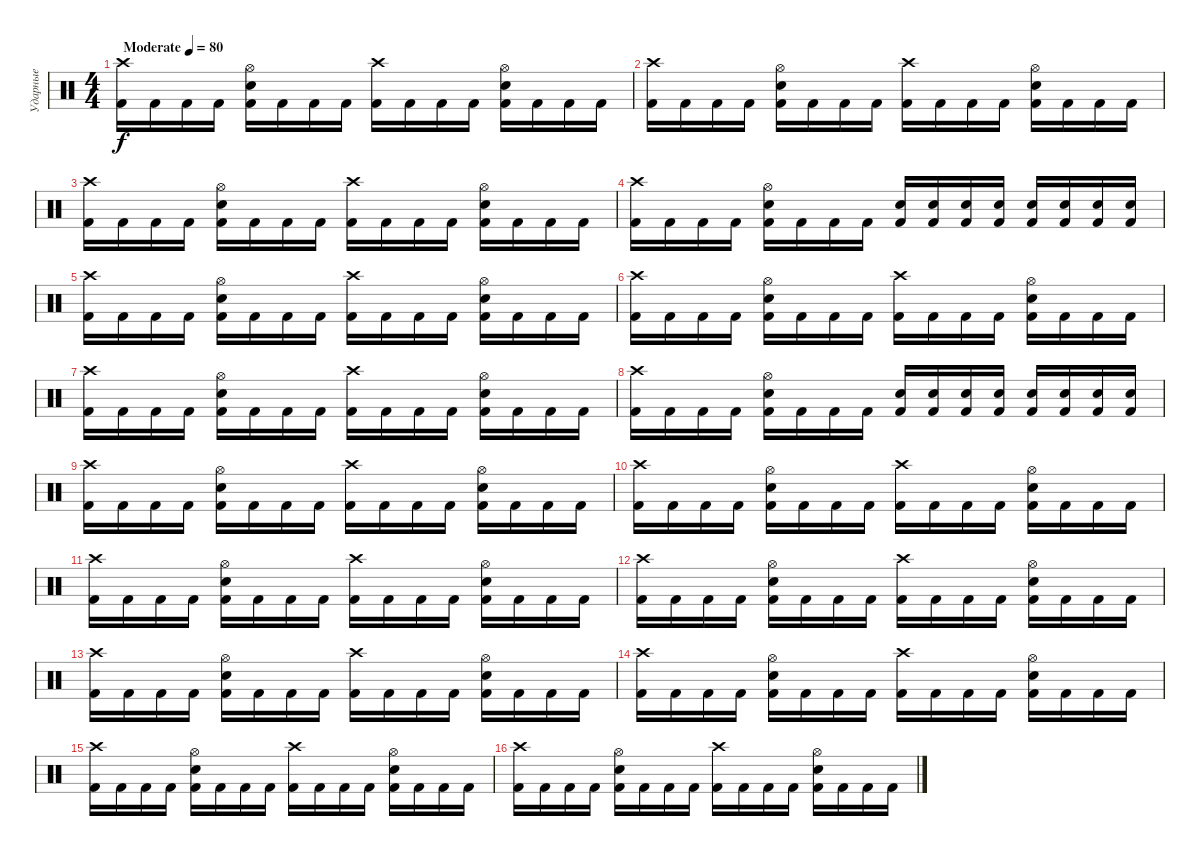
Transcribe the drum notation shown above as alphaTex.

\track ("Ударные" "Ударные") {instrument percussion}
\staff {score}
\articulation defaults
\ts (4 4)
\tempo (80 "Moderate")
\clef neutral
\ks c
("Crash high (hit)" "Kick (hit) 2").16{dy f} "Kick (hit) 2".16 "Kick (hit) 2".16 "Kick (hit) 2".16 ("Snare (hit) 2" "Hi-Hat (open)" "Kick (hit) 2").16 "Kick (hit) 2".16 "Kick (hit) 2".16 "Kick (hit) 2".16 ("Crash high (hit)" "Kick (hit) 2").16 "Kick (hit) 2".16 "Kick (hit) 2".16 "Kick (hit) 2".16 ("Snare (hit) 2" "Hi-Hat (open)" "Kick (hit) 2").16 "Kick (hit) 2".16 "Kick (hit) 2".16 "Kick (hit) 2".16 |
("Crash high (hit)" "Kick (hit) 2").16 "Kick (hit) 2".16 "Kick (hit) 2".16 "Kick (hit) 2".16 ("Snare (hit) 2" "Hi-Hat (open)" "Kick (hit) 2").16 "Kick (hit) 2".16 "Kick (hit) 2".16 "Kick (hit) 2".16 ("Crash high (hit)" "Kick (hit) 2").16 "Kick (hit) 2".16 "Kick (hit) 2".16 "Kick (hit) 2".16 ("Snare (hit) 2" "Hi-Hat (open)" "Kick (hit) 2").16 "Kick (hit) 2".16 "Kick (hit) 2".16 "Kick (hit) 2".16 |
("Crash high (hit)" "Kick (hit) 2").16 "Kick (hit) 2".16 "Kick (hit) 2".16 "Kick (hit) 2".16 ("Snare (hit) 2" "Hi-Hat (open)" "Kick (hit) 2").16 "Kick (hit) 2".16 "Kick (hit) 2".16 "Kick (hit) 2".16 ("Crash high (hit)" "Kick (hit) 2").16 "Kick (hit) 2".16 "Kick (hit) 2".16 "Kick (hit) 2".16 ("Snare (hit) 2" "Hi-Hat (open)" "Kick (hit) 2").16 "Kick (hit) 2".16 "Kick (hit) 2".16 "Kick (hit) 2".16 |
("Crash high (hit)" "Kick (hit) 2").16 "Kick (hit) 2".16 "Kick (hit) 2".16 "Kick (hit) 2".16 ("Snare (hit) 2" "Hi-Hat (open)" "Kick (hit) 2").16 "Kick (hit) 2".16 "Kick (hit) 2".16 "Kick (hit) 2".16 ("Snare (hit) 2" "Kick (hit) 2").16 ("Snare (hit) 2" "Kick (hit) 2").16 ("Snare (hit) 2" "Kick (hit) 2").16 ("Snare (hit) 2" "Kick (hit) 2").16 ("Snare (hit) 2" "Kick (hit) 2").16 ("Snare (hit) 2" "Kick (hit) 2").16 ("Snare (hit) 2" "Kick (hit) 2").16 ("Snare (hit) 2" "Kick (hit) 2").16 |
("Crash high (hit)" "Kick (hit) 2").16 "Kick (hit) 2".16 "Kick (hit) 2".16 "Kick (hit) 2".16 ("Snare (hit) 2" "Hi-Hat (open)" "Kick (hit) 2").16 "Kick (hit) 2".16 "Kick (hit) 2".16 "Kick (hit) 2".16 ("Crash high (hit)" "Kick (hit) 2").16 "Kick (hit) 2".16 "Kick (hit) 2".16 "Kick (hit) 2".16 ("Snare (hit) 2" "Hi-Hat (open)" "Kick (hit) 2").16 "Kick (hit) 2".16 "Kick (hit) 2".16 "Kick (hit) 2".16 |
("Crash high (hit)" "Kick (hit) 2").16 "Kick (hit) 2".16 "Kick (hit) 2".16 "Kick (hit) 2".16 ("Snare (hit) 2" "Hi-Hat (open)" "Kick (hit) 2").16 "Kick (hit) 2".16 "Kick (hit) 2".16 "Kick (hit) 2".16 ("Crash high (hit)" "Kick (hit) 2").16 "Kick (hit) 2".16 "Kick (hit) 2".16 "Kick (hit) 2".16 ("Snare (hit) 2" "Hi-Hat (open)" "Kick (hit) 2").16 "Kick (hit) 2".16 "Kick (hit) 2".16 "Kick (hit) 2".16 |
("Crash high (hit)" "Kick (hit) 2").16 "Kick (hit) 2".16 "Kick (hit) 2".16 "Kick (hit) 2".16 ("Snare (hit) 2" "Hi-Hat (open)" "Kick (hit) 2").16 "Kick (hit) 2".16 "Kick (hit) 2".16 "Kick (hit) 2".16 ("Crash high (hit)" "Kick (hit) 2").16 "Kick (hit) 2".16 "Kick (hit) 2".16 "Kick (hit) 2".16 ("Snare (hit) 2" "Hi-Hat (open)" "Kick (hit) 2").16 "Kick (hit) 2".16 "Kick (hit) 2".16 "Kick (hit) 2".16 |
("Crash high (hit)" "Kick (hit) 2").16 "Kick (hit) 2".16 "Kick (hit) 2".16 "Kick (hit) 2".16 ("Snare (hit) 2" "Hi-Hat (open)" "Kick (hit) 2").16 "Kick (hit) 2".16 "Kick (hit) 2".16 "Kick (hit) 2".16 ("Snare (hit) 2" "Kick (hit) 2").16 ("Snare (hit) 2" "Kick (hit) 2").16 ("Snare (hit) 2" "Kick (hit) 2").16 ("Snare (hit) 2" "Kick (hit) 2").16 ("Snare (hit) 2" "Kick (hit) 2").16 ("Snare (hit) 2" "Kick (hit) 2").16 ("Snare (hit) 2" "Kick (hit) 2").16 ("Snare (hit) 2" "Kick (hit) 2").16 |
("Crash high (hit)" "Kick (hit) 2").16 "Kick (hit) 2".16 "Kick (hit) 2".16 "Kick (hit) 2".16 ("Snare (hit) 2" "Hi-Hat (open)" "Kick (hit) 2").16 "Kick (hit) 2".16 "Kick (hit) 2".16 "Kick (hit) 2".16 ("Crash high (hit)" "Kick (hit) 2").16 "Kick (hit) 2".16 "Kick (hit) 2".16 "Kick (hit) 2".16 ("Snare (hit) 2" "Hi-Hat (open)" "Kick (hit) 2").16 "Kick (hit) 2".16 "Kick (hit) 2".16 "Kick (hit) 2".16 |
("Crash high (hit)" "Kick (hit) 2").16 "Kick (hit) 2".16 "Kick (hit) 2".16 "Kick (hit) 2".16 ("Snare (hit) 2" "Hi-Hat (open)" "Kick (hit) 2").16 "Kick (hit) 2".16 "Kick (hit) 2".16 "Kick (hit) 2".16 ("Crash high (hit)" "Kick (hit) 2").16 "Kick (hit) 2".16 "Kick (hit) 2".16 "Kick (hit) 2".16 ("Snare (hit) 2" "Hi-Hat (open)" "Kick (hit) 2").16 "Kick (hit) 2".16 "Kick (hit) 2".16 "Kick (hit) 2".16 |
("Crash high (hit)" "Kick (hit) 2").16 "Kick (hit) 2".16 "Kick (hit) 2".16 "Kick (hit) 2".16 ("Snare (hit) 2" "Hi-Hat (open)" "Kick (hit) 2").16 "Kick (hit) 2".16 "Kick (hit) 2".16 "Kick (hit) 2".16 ("Crash high (hit)" "Kick (hit) 2").16 "Kick (hit) 2".16 "Kick (hit) 2".16 "Kick (hit) 2".16 ("Snare (hit) 2" "Hi-Hat (open)" "Kick (hit) 2").16 "Kick (hit) 2".16 "Kick (hit) 2".16 "Kick (hit) 2".16 |
("Crash high (hit)" "Kick (hit) 2").16 "Kick (hit) 2".16 "Kick (hit) 2".16 "Kick (hit) 2".16 ("Snare (hit) 2" "Hi-Hat (open)" "Kick (hit) 2").16 "Kick (hit) 2".16 "Kick (hit) 2".16 "Kick (hit) 2".16 ("Crash high (hit)" "Kick (hit) 2").16 "Kick (hit) 2".16 "Kick (hit) 2".16 "Kick (hit) 2".16 ("Snare (hit) 2" "Hi-Hat (open)" "Kick (hit) 2").16 "Kick (hit) 2".16 "Kick (hit) 2".16 "Kick (hit) 2".16 |
("Crash high (hit)" "Kick (hit) 2").16 "Kick (hit) 2".16 "Kick (hit) 2".16 "Kick (hit) 2".16 ("Snare (hit) 2" "Hi-Hat (open)" "Kick (hit) 2").16 "Kick (hit) 2".16 "Kick (hit) 2".16 "Kick (hit) 2".16 ("Crash high (hit)" "Kick (hit) 2").16 "Kick (hit) 2".16 "Kick (hit) 2".16 "Kick (hit) 2".16 ("Snare (hit) 2" "Hi-Hat (open)" "Kick (hit) 2").16 "Kick (hit) 2".16 "Kick (hit) 2".16 "Kick (hit) 2".16 |
("Crash high (hit)" "Kick (hit) 2").16 "Kick (hit) 2".16 "Kick (hit) 2".16 "Kick (hit) 2".16 ("Snare (hit) 2" "Hi-Hat (open)" "Kick (hit) 2").16 "Kick (hit) 2".16 "Kick (hit) 2".16 "Kick (hit) 2".16 ("Crash high (hit)" "Kick (hit) 2").16 "Kick (hit) 2".16 "Kick (hit) 2".16 "Kick (hit) 2".16 ("Snare (hit) 2" "Hi-Hat (open)" "Kick (hit) 2").16 "Kick (hit) 2".16 "Kick (hit) 2".16 "Kick (hit) 2".16 |
("Crash high (hit)" "Kick (hit) 2").16 "Kick (hit) 2".16 "Kick (hit) 2".16 "Kick (hit) 2".16 ("Snare (hit) 2" "Hi-Hat (open)" "Kick (hit) 2").16 "Kick (hit) 2".16 "Kick (hit) 2".16 "Kick (hit) 2".16 ("Crash high (hit)" "Kick (hit) 2").16 "Kick (hit) 2".16 "Kick (hit) 2".16 "Kick (hit) 2".16 ("Snare (hit) 2" "Hi-Hat (open)" "Kick (hit) 2").16 "Kick (hit) 2".16 "Kick (hit) 2".16 "Kick (hit) 2".16 |
("Crash high (hit)" "Kick (hit) 2").16 "Kick (hit) 2".16 "Kick (hit) 2".16 "Kick (hit) 2".16 ("Snare (hit) 2" "Hi-Hat (open)" "Kick (hit) 2").16 "Kick (hit) 2".16 "Kick (hit) 2".16 "Kick (hit) 2".16 ("Crash high (hit)" "Kick (hit) 2").16 "Kick (hit) 2".16 "Kick (hit) 2".16 "Kick (hit) 2".16 ("Snare (hit) 2" "Hi-Hat (open)" "Kick (hit) 2").16 "Kick (hit) 2".16 "Kick (hit) 2".16 "Kick (hit) 2".16
